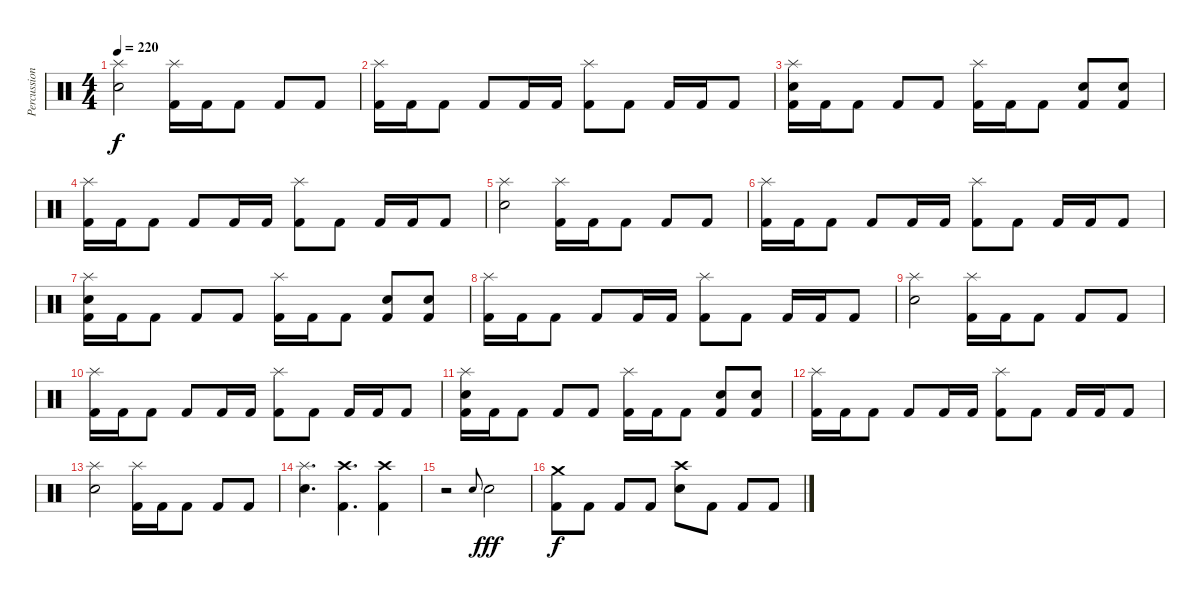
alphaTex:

\track ("Percussions" "Percussion") {instrument percussion}
\staff {score}
\articulation defaults
\ts (4 4)
\tempo 220
\clef neutral
\ks c
("Splash (hit)" "Electric Snare (hit)").2{dy f} ("Splash (hit)" "Kick (hit) 2").16 "Kick (hit) 2".16 "Kick (hit) 2".8 "Kick (hit) 2".8 "Kick (hit) 2".8 |
("Splash (hit)" "Kick (hit) 2").16 "Kick (hit) 2".16 "Kick (hit) 2".8 "Kick (hit) 2".8 "Kick (hit) 2".16 "Kick (hit) 2".16 ("Splash (hit)" "Kick (hit) 2").8 "Kick (hit) 2".8 "Kick (hit) 2".16 "Kick (hit) 2".16 "Kick (hit) 2".8 |
("Splash (hit)" "Electric Snare (hit)" "Kick (hit) 2").16 "Kick (hit) 2".16 "Kick (hit) 2".8 "Kick (hit) 2".8 "Kick (hit) 2".8 ("Splash (hit)" "Kick (hit) 2").16 "Kick (hit) 2".16 "Kick (hit) 2".8 ("Electric Snare (hit)" "Kick (hit) 2").8 ("Electric Snare (hit)" "Kick (hit) 2").8 |
("Splash (hit)" "Kick (hit) 2").16 "Kick (hit) 2".16 "Kick (hit) 2".8 "Kick (hit) 2".8 "Kick (hit) 2".16 "Kick (hit) 2".16 ("Splash (hit)" "Kick (hit) 2").8 "Kick (hit) 2".8 "Kick (hit) 2".16 "Kick (hit) 2".16 "Kick (hit) 2".8 |
("Splash (hit)" "Electric Snare (hit)").2 ("Splash (hit)" "Kick (hit) 2").16 "Kick (hit) 2".16 "Kick (hit) 2".8 "Kick (hit) 2".8 "Kick (hit) 2".8 |
("Splash (hit)" "Kick (hit) 2").16 "Kick (hit) 2".16 "Kick (hit) 2".8 "Kick (hit) 2".8 "Kick (hit) 2".16 "Kick (hit) 2".16 ("Splash (hit)" "Kick (hit) 2").8 "Kick (hit) 2".8 "Kick (hit) 2".16 "Kick (hit) 2".16 "Kick (hit) 2".8 |
("Splash (hit)" "Electric Snare (hit)" "Kick (hit) 2").16 "Kick (hit) 2".16 "Kick (hit) 2".8 "Kick (hit) 2".8 "Kick (hit) 2".8 ("Splash (hit)" "Kick (hit) 2").16 "Kick (hit) 2".16 "Kick (hit) 2".8 ("Electric Snare (hit)" "Kick (hit) 2").8 ("Electric Snare (hit)" "Kick (hit) 2").8 |
("Splash (hit)" "Kick (hit) 2").16 "Kick (hit) 2".16 "Kick (hit) 2".8 "Kick (hit) 2".8 "Kick (hit) 2".16 "Kick (hit) 2".16 ("Splash (hit)" "Kick (hit) 2").8 "Kick (hit) 2".8 "Kick (hit) 2".16 "Kick (hit) 2".16 "Kick (hit) 2".8 |
("Splash (hit)" "Electric Snare (hit)").2 ("Splash (hit)" "Kick (hit) 2").16 "Kick (hit) 2".16 "Kick (hit) 2".8 "Kick (hit) 2".8 "Kick (hit) 2".8 |
("Splash (hit)" "Kick (hit) 2").16 "Kick (hit) 2".16 "Kick (hit) 2".8 "Kick (hit) 2".8 "Kick (hit) 2".16 "Kick (hit) 2".16 ("Splash (hit)" "Kick (hit) 2").8 "Kick (hit) 2".8 "Kick (hit) 2".16 "Kick (hit) 2".16 "Kick (hit) 2".8 |
("Splash (hit)" "Electric Snare (hit)" "Kick (hit) 2").16 "Kick (hit) 2".16 "Kick (hit) 2".8 "Kick (hit) 2".8 "Kick (hit) 2".8 ("Splash (hit)" "Kick (hit) 2").16 "Kick (hit) 2".16 "Kick (hit) 2".8 ("Electric Snare (hit)" "Kick (hit) 2").8 ("Electric Snare (hit)" "Kick (hit) 2").8 |
("Splash (hit)" "Kick (hit) 2").16 "Kick (hit) 2".16 "Kick (hit) 2".8 "Kick (hit) 2".8 "Kick (hit) 2".16 "Kick (hit) 2".16 ("Splash (hit)" "Kick (hit) 2").8 "Kick (hit) 2".8 "Kick (hit) 2".16 "Kick (hit) 2".16 "Kick (hit) 2".8 |
("Splash (hit)" "Electric Snare (hit)").2 ("Splash (hit)" "Kick (hit) 2").16 "Kick (hit) 2".16 "Kick (hit) 2".8 "Kick (hit) 2".8 "Kick (hit) 2".8 |
("Splash (hit)" "Electric Snare (hit)").4{d} ("Crash high (hit)" "Kick (hit) 2").4{d} ("Crash high (hit)" "Kick (hit) 2").4 |
r.2 "Electric Snare (hit)".8{gr onbeat} "Electric Snare (hit)".2{dy fff} |
("Crash medium (hit)" "Kick (hit) 2").8{dy f} "Kick (hit) 2".8 "Kick (hit) 2".8 "Kick (hit) 2".8 ("Crash high (hit)" "Electric Snare (hit)").8 "Kick (hit) 2".8 "Kick (hit) 2".8 "Kick (hit) 2".8
